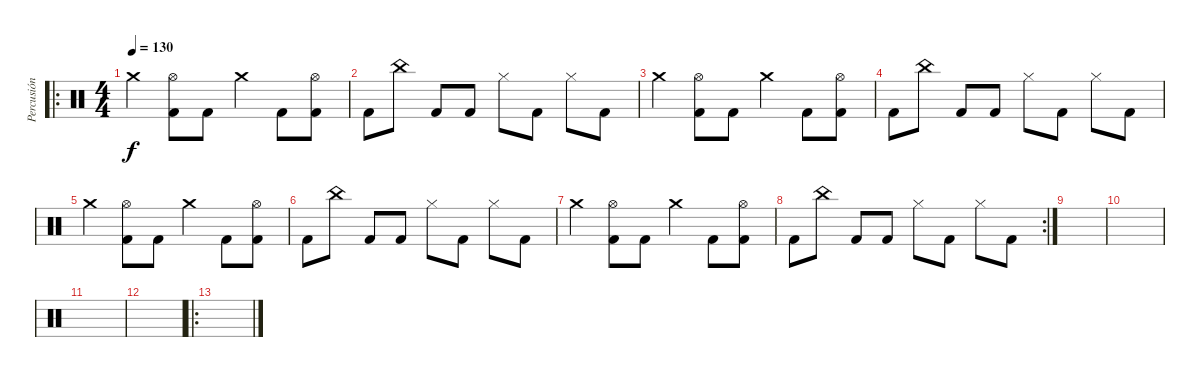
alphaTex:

\track ("Percusión" "Percusión") {instrument percussion}
\staff {score}
\articulation defaults
\ro
\ts (4 4)
\tempo 130
\clef neutral
\ks c "Crash medium (hit)".4{dy f}
("Hi-Hat (open)" "Kick (hit) 2").8 "Kick (hit) 2".8 "Crash medium (hit)".4 "Kick (hit) 2".8 ("Hi-Hat (open)" "Kick (hit) 2").8 |
"Kick (hit) 2".8 "China (hit)".8 "Kick (hit) 2".8 "Kick (hit) 2".8 "Hi-Hat (closed)".8 "Kick (hit) 2".8 "Hi-Hat (closed)".8 "Kick (hit) 2".8 |
"Crash medium (hit)".4 ("Hi-Hat (open)" "Kick (hit) 2").8 "Kick (hit) 2".8 "Crash medium (hit)".4 "Kick (hit) 2".8 ("Hi-Hat (open)" "Kick (hit) 2").8 |
"Kick (hit) 2".8 "China (hit)".8 "Kick (hit) 2".8 "Kick (hit) 2".8 "Hi-Hat (closed)".8 "Kick (hit) 2".8 "Hi-Hat (closed)".8 "Kick (hit) 2".8 |
"Crash medium (hit)".4 ("Hi-Hat (open)" "Kick (hit) 2").8 "Kick (hit) 2".8 "Crash medium (hit)".4 "Kick (hit) 2".8 ("Hi-Hat (open)" "Kick (hit) 2").8 |
"Kick (hit) 2".8 "China (hit)".8 "Kick (hit) 2".8 "Kick (hit) 2".8 "Hi-Hat (closed)".8 "Kick (hit) 2".8 "Hi-Hat (closed)".8 "Kick (hit) 2".8 |
"Crash medium (hit)".4 ("Hi-Hat (open)" "Kick (hit) 2").8 "Kick (hit) 2".8 "Crash medium (hit)".4 "Kick (hit) 2".8 ("Hi-Hat (open)" "Kick (hit) 2").8 |
\rc 2 "Kick (hit) 2".8 "China (hit)".8 "Kick (hit) 2".8 "Kick (hit) 2".8 "Hi-Hat (closed)".8 "Kick (hit) 2".8 "Hi-Hat (closed)".8 "Kick (hit) 2".8
|
|
|
|
|
\ro
